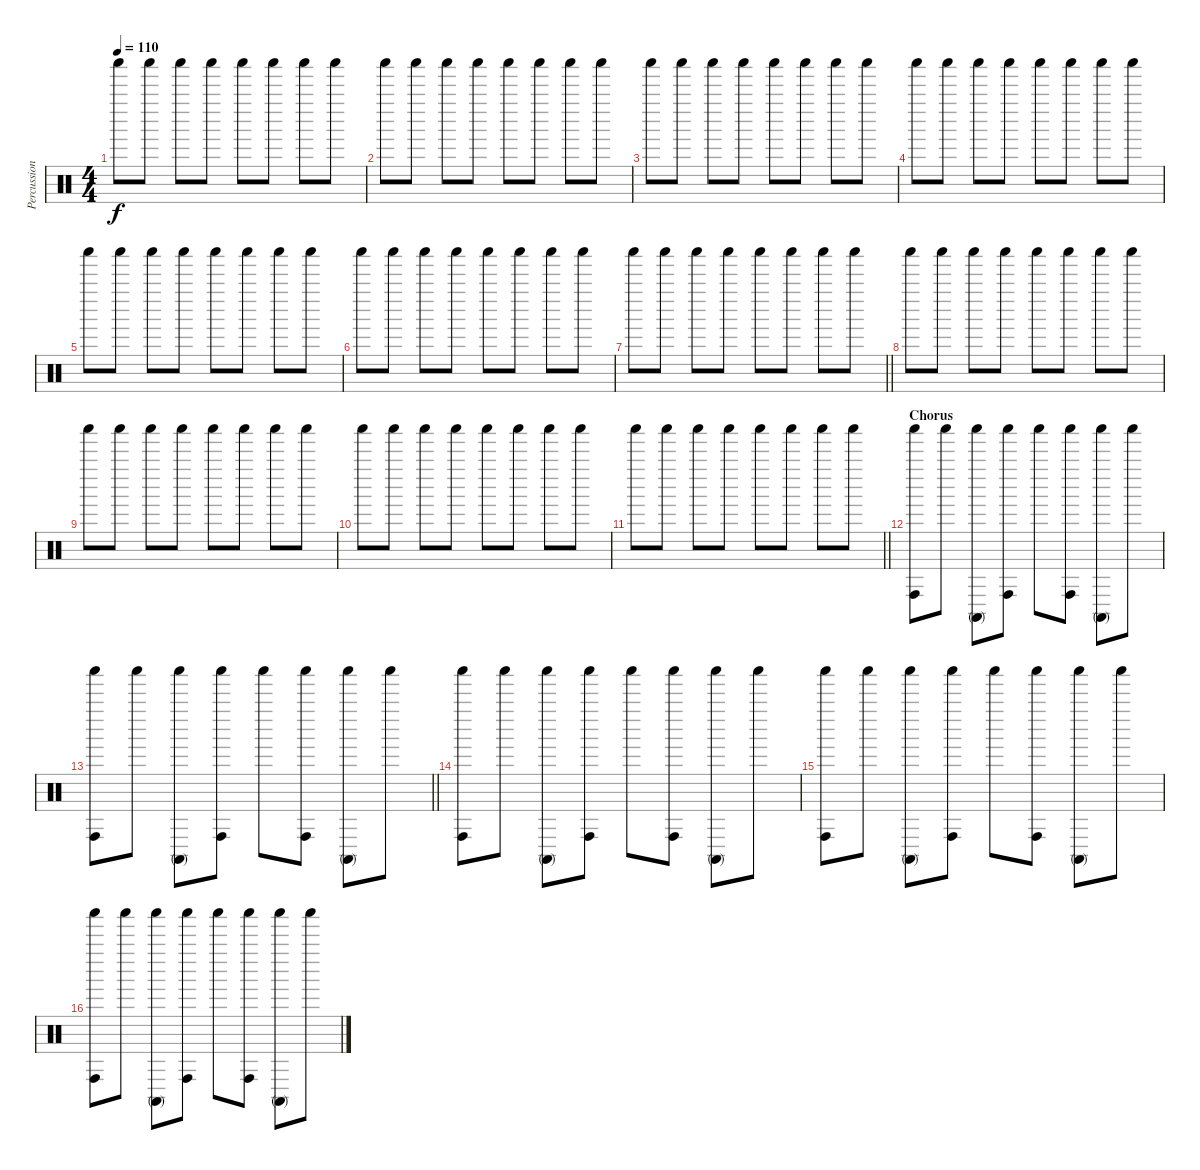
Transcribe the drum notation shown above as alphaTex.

\track ("Percussion" "Percussion") {instrument percussion}
\staff {score}
\articulation defaults
\ts (4 4)
\tempo 110
\clef neutral
\ks c "Shaker (hit)".8{dy f} "Shaker (hit)".8 "Shaker (hit)".8 "Shaker (hit)".8 "Shaker (hit)".8 "Shaker (hit)".8 "Shaker (hit)".8 "Shaker (hit)".8
|
"Shaker (hit)".8 "Shaker (hit)".8 "Shaker (hit)".8 "Shaker (hit)".8 "Shaker (hit)".8 "Shaker (hit)".8 "Shaker (hit)".8 "Shaker (hit)".8 |
"Shaker (hit)".8 "Shaker (hit)".8 "Shaker (hit)".8 "Shaker (hit)".8 "Shaker (hit)".8 "Shaker (hit)".8 "Shaker (hit)".8 "Shaker (hit)".8 |
"Shaker (hit)".8 "Shaker (hit)".8 "Shaker (hit)".8 "Shaker (hit)".8 "Shaker (hit)".8 "Shaker (hit)".8 "Shaker (hit)".8 "Shaker (hit)".8 |
"Shaker (hit)".8 "Shaker (hit)".8 "Shaker (hit)".8 "Shaker (hit)".8 "Shaker (hit)".8 "Shaker (hit)".8 "Shaker (hit)".8 "Shaker (hit)".8 |
"Shaker (hit)".8 "Shaker (hit)".8 "Shaker (hit)".8 "Shaker (hit)".8 "Shaker (hit)".8 "Shaker (hit)".8 "Shaker (hit)".8 "Shaker (hit)".8 |
\barLineRight lightlight "Shaker (hit)".8 "Shaker (hit)".8 "Shaker (hit)".8 "Shaker (hit)".8 "Shaker (hit)".8 "Shaker (hit)".8 "Shaker (hit)".8 "Shaker (hit)".8
|
"Shaker (hit)".8 "Shaker (hit)".8 "Shaker (hit)".8 "Shaker (hit)".8 "Shaker (hit)".8 "Shaker (hit)".8 "Shaker (hit)".8 "Shaker (hit)".8 |
"Shaker (hit)".8 "Shaker (hit)".8 "Shaker (hit)".8 "Shaker (hit)".8 "Shaker (hit)".8 "Shaker (hit)".8 "Shaker (hit)".8 "Shaker (hit)".8 |
"Shaker (hit)".8 "Shaker (hit)".8 "Shaker (hit)".8 "Shaker (hit)".8 "Shaker (hit)".8 "Shaker (hit)".8 "Shaker (hit)".8 "Shaker (hit)".8 |
\barLineRight lightlight "Shaker (hit)".8 "Shaker (hit)".8 "Shaker (hit)".8 "Shaker (hit)".8 "Shaker (hit)".8 "Shaker (hit)".8 "Shaker (hit)".8 "Shaker (hit)".8
|
\section ("" "Chorus")
("Conga high (hit)" "Shaker (hit)").8 "Shaker (hit)".8 ("Conga high (mute)" "Shaker (hit)").8 ("Conga high (hit)" "Shaker (hit)").8 "Shaker (hit)".8 ("Conga high (hit)" "Shaker (hit)").8 ("Conga high (mute)" "Shaker (hit)").8 "Shaker (hit)".8 |
\barLineRight lightlight
("Conga high (hit)" "Shaker (hit)").8 "Shaker (hit)".8 ("Conga high (mute)" "Shaker (hit)").8 ("Conga high (hit)" "Shaker (hit)").8 "Shaker (hit)".8 ("Conga high (hit)" "Shaker (hit)").8 ("Conga high (mute)" "Shaker (hit)").8 "Shaker (hit)".8 |
("Conga high (hit)" "Shaker (hit)").8 "Shaker (hit)".8 ("Conga high (mute)" "Shaker (hit)").8 ("Conga high (hit)" "Shaker (hit)").8 "Shaker (hit)".8 ("Conga high (hit)" "Shaker (hit)").8 ("Conga high (mute)" "Shaker (hit)").8 "Shaker (hit)".8 |
("Conga high (hit)" "Shaker (hit)").8 "Shaker (hit)".8 ("Conga high (mute)" "Shaker (hit)").8 ("Conga high (hit)" "Shaker (hit)").8 "Shaker (hit)".8 ("Conga high (hit)" "Shaker (hit)").8 ("Conga high (mute)" "Shaker (hit)").8 "Shaker (hit)".8 |
("Conga high (hit)" "Shaker (hit)").8 "Shaker (hit)".8 ("Conga high (mute)" "Shaker (hit)").8 ("Conga high (hit)" "Shaker (hit)").8 "Shaker (hit)".8 ("Conga high (hit)" "Shaker (hit)").8 ("Conga high (mute)" "Shaker (hit)").8 "Shaker (hit)".8
